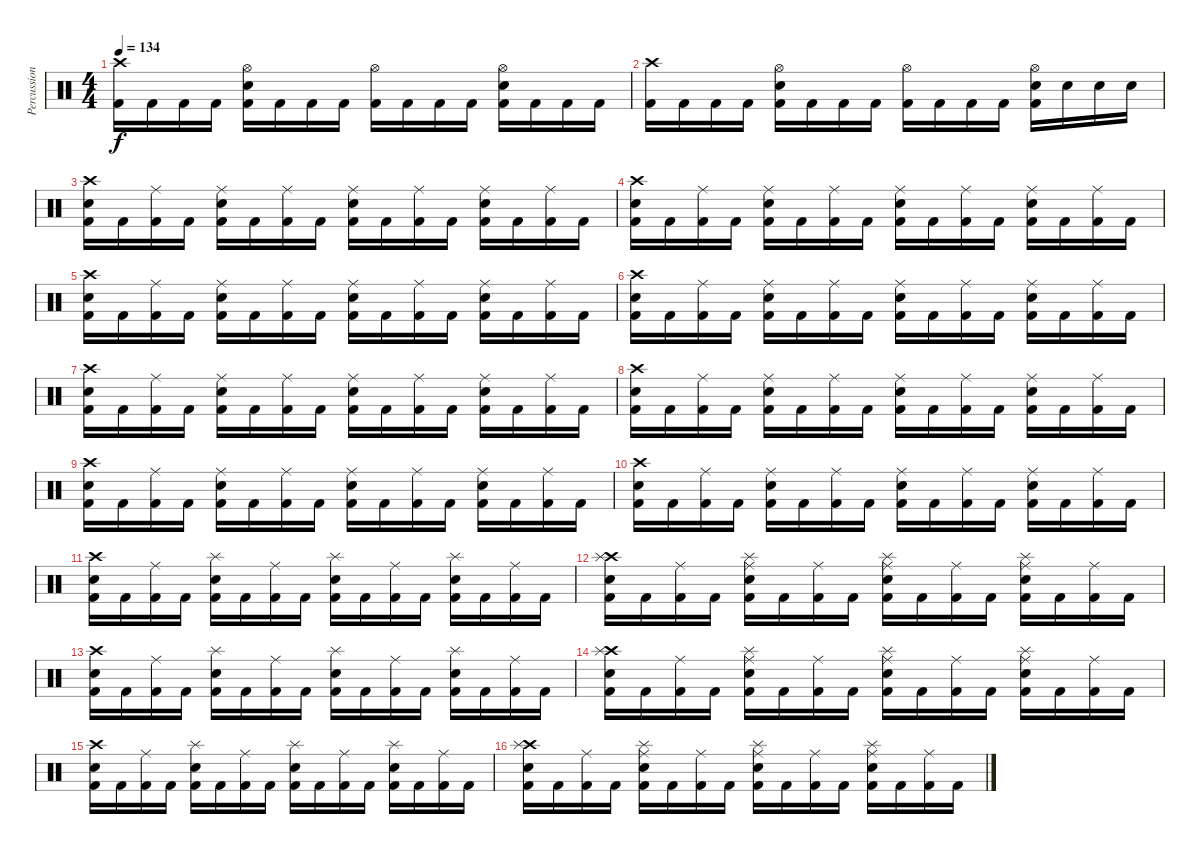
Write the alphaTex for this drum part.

\track ("Percussion" "Percussion") {instrument percussion}
\staff {score}
\articulation defaults
\ts (4 4)
\tempo 134
\clef neutral
\ks c
("Crash high (hit)" "Kick (hit) 2").16{dy f} "Kick (hit) 2".16 "Kick (hit) 2".16 "Kick (hit) 2".16 ("Snare (hit) 2" "Kick (hit) 2" "Hi-Hat (open)").16 "Kick (hit) 2".16 "Kick (hit) 2".16 "Kick (hit) 2".16 ("Kick (hit) 2" "Hi-Hat (open)").16 "Kick (hit) 2".16 "Kick (hit) 2".16 "Kick (hit) 2".16 ("Snare (hit) 2" "Kick (hit) 2" "Hi-Hat (open)").16 "Kick (hit) 2".16 "Kick (hit) 2".16 "Kick (hit) 2".16 |
("Crash high (hit)" "Kick (hit) 2").16 "Kick (hit) 2".16 "Kick (hit) 2".16 "Kick (hit) 2".16 ("Snare (hit) 2" "Kick (hit) 2" "Hi-Hat (open)").16 "Kick (hit) 2".16 "Kick (hit) 2".16 "Kick (hit) 2".16 ("Kick (hit) 2" "Hi-Hat (open)").16 "Kick (hit) 2".16 "Kick (hit) 2".16 "Kick (hit) 2".16 ("Snare (hit) 2" "Kick (hit) 2" "Hi-Hat (open)").16 "Snare (hit) 2".16 "Snare (hit) 2".16 "Snare (hit) 2".16 |
("Crash high (hit)" "Snare (hit) 2" "Kick (hit) 2").16 "Kick (hit) 2".16 ("Ride (middle)" "Kick (hit) 2").16 "Kick (hit) 2".16 ("Ride (middle)" "Snare (hit) 2" "Kick (hit) 2").16 "Kick (hit) 2".16 ("Ride (middle)" "Kick (hit) 2").16 "Kick (hit) 2".16 ("Ride (middle)" "Kick (hit) 2" "Snare (hit) 2").16 "Kick (hit) 2".16 ("Ride (middle)" "Kick (hit) 2").16 "Kick (hit) 2".16 ("Ride (middle)" "Snare (hit) 2" "Kick (hit) 2").16 "Kick (hit) 2".16 ("Ride (middle)" "Kick (hit) 2").16 "Kick (hit) 2".16 |
("Crash high (hit)" "Snare (hit) 2" "Kick (hit) 2").16 "Kick (hit) 2".16 ("Ride (middle)" "Kick (hit) 2").16 "Kick (hit) 2".16 ("Ride (middle)" "Snare (hit) 2" "Kick (hit) 2").16 "Kick (hit) 2".16 ("Ride (middle)" "Kick (hit) 2").16 "Kick (hit) 2".16 ("Ride (middle)" "Kick (hit) 2" "Snare (hit) 2").16 "Kick (hit) 2".16 ("Ride (middle)" "Kick (hit) 2").16 "Kick (hit) 2".16 ("Ride (middle)" "Snare (hit) 2" "Kick (hit) 2").16 "Kick (hit) 2".16 ("Ride (middle)" "Kick (hit) 2").16 "Kick (hit) 2".16 |
("Crash high (hit)" "Snare (hit) 2" "Kick (hit) 2").16 "Kick (hit) 2".16 ("Ride (middle)" "Kick (hit) 2").16 "Kick (hit) 2".16 ("Ride (middle)" "Snare (hit) 2" "Kick (hit) 2").16 "Kick (hit) 2".16 ("Ride (middle)" "Kick (hit) 2").16 "Kick (hit) 2".16 ("Ride (middle)" "Kick (hit) 2" "Snare (hit) 2").16 "Kick (hit) 2".16 ("Ride (middle)" "Kick (hit) 2").16 "Kick (hit) 2".16 ("Ride (middle)" "Snare (hit) 2" "Kick (hit) 2").16 "Kick (hit) 2".16 ("Ride (middle)" "Kick (hit) 2").16 "Kick (hit) 2".16 |
("Crash high (hit)" "Snare (hit) 2" "Kick (hit) 2").16 "Kick (hit) 2".16 ("Ride (middle)" "Kick (hit) 2").16 "Kick (hit) 2".16 ("Ride (middle)" "Snare (hit) 2" "Kick (hit) 2").16 "Kick (hit) 2".16 ("Ride (middle)" "Kick (hit) 2").16 "Kick (hit) 2".16 ("Ride (middle)" "Kick (hit) 2" "Snare (hit) 2").16 "Kick (hit) 2".16 ("Ride (middle)" "Kick (hit) 2").16 "Kick (hit) 2".16 ("Ride (middle)" "Snare (hit) 2" "Kick (hit) 2").16 "Kick (hit) 2".16 ("Ride (middle)" "Kick (hit) 2").16 "Kick (hit) 2".16 |
("Crash high (hit)" "Snare (hit) 2" "Kick (hit) 2").16 "Kick (hit) 2".16 ("Ride (middle)" "Kick (hit) 2").16 "Kick (hit) 2".16 ("Ride (middle)" "Snare (hit) 2" "Kick (hit) 2").16 "Kick (hit) 2".16 ("Ride (middle)" "Kick (hit) 2").16 "Kick (hit) 2".16 ("Ride (middle)" "Kick (hit) 2" "Snare (hit) 2").16 "Kick (hit) 2".16 ("Ride (middle)" "Kick (hit) 2").16 "Kick (hit) 2".16 ("Ride (middle)" "Snare (hit) 2" "Kick (hit) 2").16 "Kick (hit) 2".16 ("Ride (middle)" "Kick (hit) 2").16 "Kick (hit) 2".16 |
("Crash high (hit)" "Snare (hit) 2" "Kick (hit) 2").16 "Kick (hit) 2".16 ("Ride (middle)" "Kick (hit) 2").16 "Kick (hit) 2".16 ("Ride (middle)" "Snare (hit) 2" "Kick (hit) 2").16 "Kick (hit) 2".16 ("Ride (middle)" "Kick (hit) 2").16 "Kick (hit) 2".16 ("Ride (middle)" "Kick (hit) 2" "Snare (hit) 2").16 "Kick (hit) 2".16 ("Ride (middle)" "Kick (hit) 2").16 "Kick (hit) 2".16 ("Ride (middle)" "Snare (hit) 2" "Kick (hit) 2").16 "Kick (hit) 2".16 ("Ride (middle)" "Kick (hit) 2").16 "Kick (hit) 2".16 |
("Crash high (hit)" "Snare (hit) 2" "Kick (hit) 2").16 "Kick (hit) 2".16 ("Ride (middle)" "Kick (hit) 2").16 "Kick (hit) 2".16 ("Ride (middle)" "Snare (hit) 2" "Kick (hit) 2").16 "Kick (hit) 2".16 ("Ride (middle)" "Kick (hit) 2").16 "Kick (hit) 2".16 ("Ride (middle)" "Kick (hit) 2" "Snare (hit) 2").16 "Kick (hit) 2".16 ("Ride (middle)" "Kick (hit) 2").16 "Kick (hit) 2".16 ("Ride (middle)" "Snare (hit) 2" "Kick (hit) 2").16 "Kick (hit) 2".16 ("Ride (middle)" "Kick (hit) 2").16 "Kick (hit) 2".16 |
("Crash high (hit)" "Snare (hit) 2" "Kick (hit) 2").16 "Kick (hit) 2".16 ("Ride (middle)" "Kick (hit) 2").16 "Kick (hit) 2".16 ("Ride (middle)" "Snare (hit) 2" "Kick (hit) 2").16 "Kick (hit) 2".16 ("Ride (middle)" "Kick (hit) 2").16 "Kick (hit) 2".16 ("Ride (middle)" "Kick (hit) 2" "Snare (hit) 2").16 "Kick (hit) 2".16 ("Ride (middle)" "Kick (hit) 2").16 "Kick (hit) 2".16 ("Ride (middle)" "Snare (hit) 2" "Kick (hit) 2").16 "Kick (hit) 2".16 ("Ride (middle)" "Kick (hit) 2").16 "Kick (hit) 2".16 |
("Crash high (hit)" "Snare (hit) 2" "Kick (hit) 2").16 "Kick (hit) 2".16 ("Ride (middle)" "Kick (hit) 2").16 "Kick (hit) 2".16 ("Splash (hit)" "Snare (hit) 2" "Kick (hit) 2").16 "Kick (hit) 2".16 ("Ride (middle)" "Kick (hit) 2").16 "Kick (hit) 2".16 ("Splash (hit)" "Kick (hit) 2" "Snare (hit) 2").16 "Kick (hit) 2".16 ("Ride (middle)" "Kick (hit) 2").16 "Kick (hit) 2".16 ("Splash (hit)" "Snare (hit) 2" "Kick (hit) 2").16 "Kick (hit) 2".16 ("Ride (middle)" "Kick (hit) 2").16 "Kick (hit) 2".16 |
("Crash high (hit)" "Snare (hit) 2" "Kick (hit) 2" "Splash (hit)").16 "Kick (hit) 2".16 ("Ride (middle)" "Kick (hit) 2").16 "Kick (hit) 2".16 ("Ride (middle)" "Snare (hit) 2" "Kick (hit) 2" "Splash (hit)").16 "Kick (hit) 2".16 ("Ride (middle)" "Kick (hit) 2").16 "Kick (hit) 2".16 ("Ride (middle)" "Kick (hit) 2" "Snare (hit) 2" "Splash (hit)").16 "Kick (hit) 2".16 ("Ride (middle)" "Kick (hit) 2").16 "Kick (hit) 2".16 ("Ride (middle)" "Snare (hit) 2" "Kick (hit) 2" "Splash (hit)").16 "Kick (hit) 2".16 ("Ride (middle)" "Kick (hit) 2").16 "Kick (hit) 2".16 |
("Crash high (hit)" "Snare (hit) 2" "Kick (hit) 2").16 "Kick (hit) 2".16 ("Ride (middle)" "Kick (hit) 2").16 "Kick (hit) 2".16 ("Splash (hit)" "Snare (hit) 2" "Kick (hit) 2").16 "Kick (hit) 2".16 ("Ride (middle)" "Kick (hit) 2").16 "Kick (hit) 2".16 ("Splash (hit)" "Kick (hit) 2" "Snare (hit) 2").16 "Kick (hit) 2".16 ("Ride (middle)" "Kick (hit) 2").16 "Kick (hit) 2".16 ("Splash (hit)" "Snare (hit) 2" "Kick (hit) 2").16 "Kick (hit) 2".16 ("Ride (middle)" "Kick (hit) 2").16 "Kick (hit) 2".16 |
("Crash high (hit)" "Snare (hit) 2" "Kick (hit) 2" "Splash (hit)").16 "Kick (hit) 2".16 ("Ride (middle)" "Kick (hit) 2").16 "Kick (hit) 2".16 ("Ride (middle)" "Snare (hit) 2" "Kick (hit) 2" "Splash (hit)").16 "Kick (hit) 2".16 ("Ride (middle)" "Kick (hit) 2").16 "Kick (hit) 2".16 ("Ride (middle)" "Kick (hit) 2" "Snare (hit) 2" "Splash (hit)").16 "Kick (hit) 2".16 ("Ride (middle)" "Kick (hit) 2").16 "Kick (hit) 2".16 ("Ride (middle)" "Snare (hit) 2" "Kick (hit) 2" "Splash (hit)").16 "Kick (hit) 2".16 ("Ride (middle)" "Kick (hit) 2").16 "Kick (hit) 2".16 |
("Crash high (hit)" "Snare (hit) 2" "Kick (hit) 2").16 "Kick (hit) 2".16 ("Ride (middle)" "Kick (hit) 2").16 "Kick (hit) 2".16 ("Splash (hit)" "Snare (hit) 2" "Kick (hit) 2").16 "Kick (hit) 2".16 ("Ride (middle)" "Kick (hit) 2").16 "Kick (hit) 2".16 ("Splash (hit)" "Kick (hit) 2" "Snare (hit) 2").16 "Kick (hit) 2".16 ("Ride (middle)" "Kick (hit) 2").16 "Kick (hit) 2".16 ("Splash (hit)" "Snare (hit) 2" "Kick (hit) 2").16 "Kick (hit) 2".16 ("Ride (middle)" "Kick (hit) 2").16 "Kick (hit) 2".16 |
("Crash high (hit)" "Snare (hit) 2" "Kick (hit) 2" "Splash (hit)").16 "Kick (hit) 2".16 ("Ride (middle)" "Kick (hit) 2").16 "Kick (hit) 2".16 ("Ride (middle)" "Snare (hit) 2" "Kick (hit) 2" "Splash (hit)").16 "Kick (hit) 2".16 ("Ride (middle)" "Kick (hit) 2").16 "Kick (hit) 2".16 ("Ride (middle)" "Kick (hit) 2" "Snare (hit) 2" "Splash (hit)").16 "Kick (hit) 2".16 ("Ride (middle)" "Kick (hit) 2").16 "Kick (hit) 2".16 ("Ride (middle)" "Snare (hit) 2" "Kick (hit) 2" "Splash (hit)").16 "Kick (hit) 2".16 ("Ride (middle)" "Kick (hit) 2").16 "Kick (hit) 2".16
